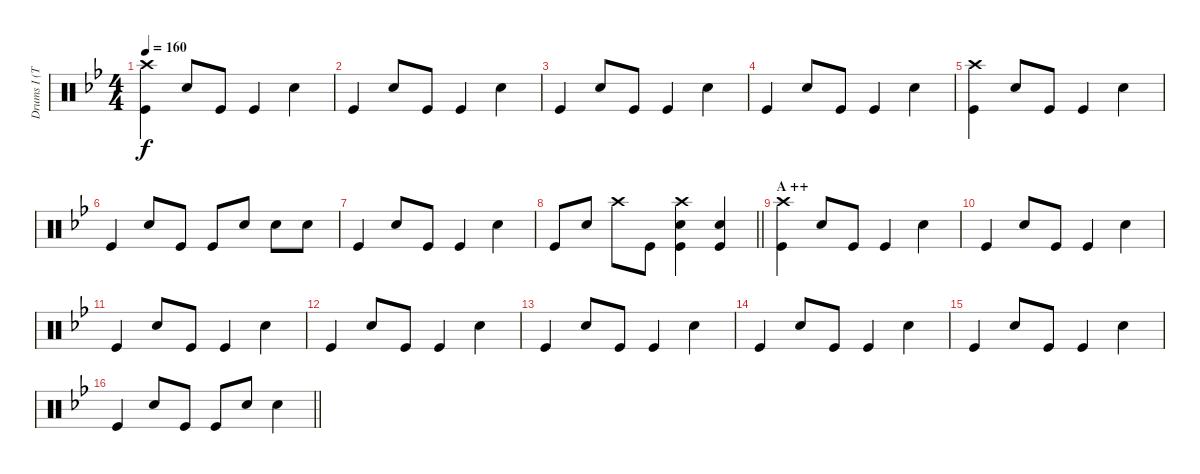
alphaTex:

\track ("Drums I (Tainaka Ritsu)" "Drums I (T") {instrument percussion}
\staff {score}
\articulation defaults
\ts (4 4)
\tempo 160
\clef neutral
\ks bb
("Crash high (hit)" "Kick (hit)").4{dy f} "Snare (hit) 2".8 "Kick (hit)".8 "Kick (hit)".4 "Snare (hit) 2".4 |
"Kick (hit)".4 "Snare (hit) 2".8 "Kick (hit)".8 "Kick (hit)".4 "Snare (hit) 2".4 |
"Kick (hit)".4 "Snare (hit) 2".8 "Kick (hit)".8 "Kick (hit)".4 "Snare (hit) 2".4 |
"Kick (hit)".4 "Snare (hit) 2".8 "Kick (hit)".8 "Kick (hit)".4 "Snare (hit) 2".4 |
("Crash high (hit)" "Kick (hit)").4 "Snare (hit) 2".8 "Kick (hit)".8 "Kick (hit)".4 "Snare (hit) 2".4 |
"Kick (hit)".4 "Snare (hit) 2".8 "Kick (hit)".8 "Kick (hit)".8 "Snare (hit) 2".8 "Snare (hit) 2".8 "Snare (hit) 2".8 |
"Kick (hit)".4 "Snare (hit) 2".8 "Kick (hit)".8 "Kick (hit)".4 "Snare (hit) 2".4 |
\barLineRight lightlight "Kick (hit)".8 "Snare (hit) 2".8 "Crash high (hit)".8 "Kick (hit)".8
("Crash high (hit)" "Snare (hit) 2" "Kick (hit)").4 ("Snare (hit) 2" "Kick (hit)").4 |
\section ("" "A ++")
("Crash high (hit)" "Kick (hit)").4 "Snare (hit) 2".8 "Kick (hit)".8 "Kick (hit)".4 "Snare (hit) 2".4 |
"Kick (hit)".4 "Snare (hit) 2".8 "Kick (hit)".8 "Kick (hit)".4 "Snare (hit) 2".4 |
"Kick (hit)".4 "Snare (hit) 2".8 "Kick (hit)".8 "Kick (hit)".4 "Snare (hit) 2".4 |
"Kick (hit)".4 "Snare (hit) 2".8 "Kick (hit)".8 "Kick (hit)".4 "Snare (hit) 2".4 |
"Kick (hit)".4 "Snare (hit) 2".8 "Kick (hit)".8 "Kick (hit)".4 "Snare (hit) 2".4 |
"Kick (hit)".4 "Snare (hit) 2".8 "Kick (hit)".8 "Kick (hit)".4 "Snare (hit) 2".4 |
"Kick (hit)".4 "Snare (hit) 2".8 "Kick (hit)".8 "Kick (hit)".4 "Snare (hit) 2".4 |
\barLineRight lightlight "Kick (hit)".4 "Snare (hit) 2".8 "Kick (hit)".8 "Kick (hit)".8 "Snare (hit) 2".8 "Snare (hit) 2".4
